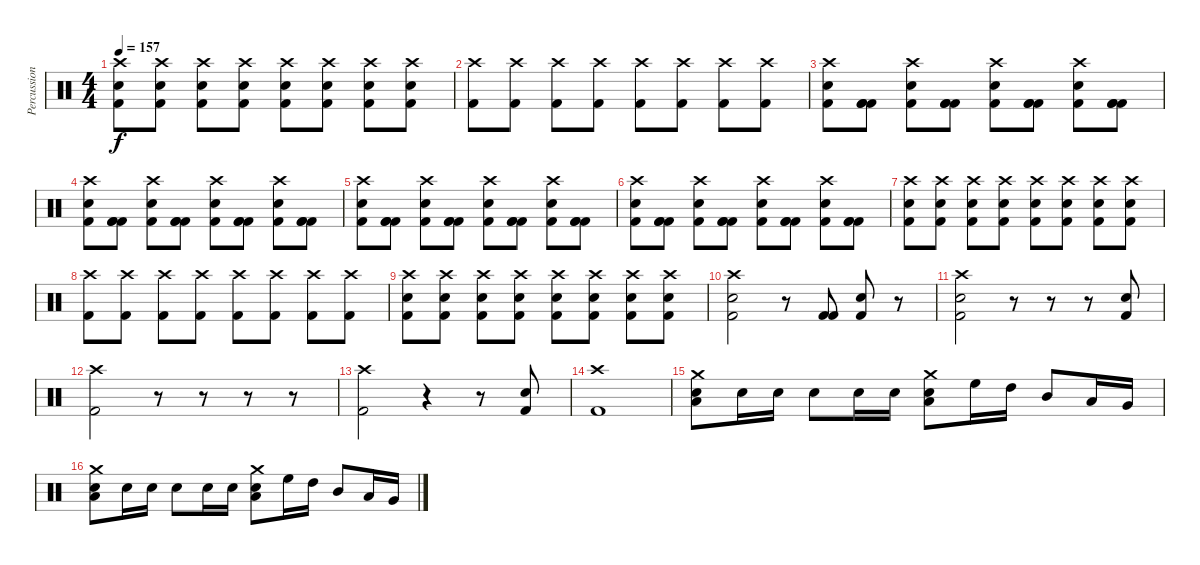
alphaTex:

\track ("Percussion" "Percussion") {instrument percussion}
\staff {score}
\articulation defaults
\ts (4 4)
\tempo 157
\clef neutral
\ks c
("Kick (hit) 2" "Electric Snare (hit)" "Crash high (hit)").8{dy f} ("Kick (hit) 2" "Electric Snare (hit)" "Crash high (hit)").8 ("Kick (hit) 2" "Electric Snare (hit)" "Crash high (hit)").8 ("Kick (hit) 2" "Electric Snare (hit)" "Crash high (hit)").8 ("Kick (hit) 2" "Electric Snare (hit)" "Crash high (hit)").8 ("Kick (hit) 2" "Electric Snare (hit)" "Crash high (hit)").8 ("Kick (hit) 2" "Electric Snare (hit)" "Crash high (hit)").8 ("Kick (hit) 2" "Electric Snare (hit)" "Crash high (hit)").8 |
("Kick (hit) 2" "Crash high (hit)").8 ("Kick (hit) 2" "Crash high (hit)").8 ("Kick (hit) 2" "Crash high (hit)").8 ("Kick (hit) 2" "Crash high (hit)").8 ("Kick (hit) 2" "Crash high (hit)").8 ("Kick (hit) 2" "Crash high (hit)").8 ("Kick (hit) 2" "Crash high (hit)").8 ("Kick (hit) 2" "Crash high (hit)").8 |
("Kick (hit) 2" "Electric Snare (hit)" "Crash high (hit)").8 ("Kick (hit) 2" "Kick (hit) 2" "Kick (hit) 2").8 ("Kick (hit) 2" "Electric Snare (hit)" "Crash high (hit)").8 ("Kick (hit) 2" "Kick (hit) 2" "Kick (hit) 2").8 ("Kick (hit) 2" "Electric Snare (hit)" "Crash high (hit)").8 ("Kick (hit) 2" "Kick (hit) 2" "Kick (hit) 2").8 ("Kick (hit) 2" "Electric Snare (hit)" "Crash high (hit)").8 ("Kick (hit) 2" "Kick (hit) 2" "Kick (hit) 2").8 |
("Kick (hit) 2" "Electric Snare (hit)" "Crash high (hit)").8 ("Kick (hit) 2" "Kick (hit) 2" "Kick (hit) 2").8 ("Kick (hit) 2" "Electric Snare (hit)" "Crash high (hit)").8 ("Kick (hit) 2" "Kick (hit) 2" "Kick (hit) 2").8 ("Kick (hit) 2" "Electric Snare (hit)" "Crash high (hit)").8 ("Kick (hit) 2" "Kick (hit) 2" "Kick (hit) 2").8 ("Kick (hit) 2" "Electric Snare (hit)" "Crash high (hit)").8 ("Kick (hit) 2" "Kick (hit) 2" "Kick (hit) 2").8 |
("Kick (hit) 2" "Electric Snare (hit)" "Crash high (hit)").8 ("Kick (hit) 2" "Kick (hit) 2" "Kick (hit) 2").8 ("Kick (hit) 2" "Electric Snare (hit)" "Crash high (hit)").8 ("Kick (hit) 2" "Kick (hit) 2" "Kick (hit) 2").8 ("Kick (hit) 2" "Electric Snare (hit)" "Crash high (hit)").8 ("Kick (hit) 2" "Kick (hit) 2" "Kick (hit) 2").8 ("Kick (hit) 2" "Electric Snare (hit)" "Crash high (hit)").8 ("Kick (hit) 2" "Kick (hit) 2" "Kick (hit) 2").8 |
("Kick (hit) 2" "Electric Snare (hit)" "Crash high (hit)").8 ("Kick (hit) 2" "Kick (hit) 2" "Kick (hit) 2").8 ("Kick (hit) 2" "Electric Snare (hit)" "Crash high (hit)").8 ("Kick (hit) 2" "Kick (hit) 2" "Kick (hit) 2").8 ("Kick (hit) 2" "Electric Snare (hit)" "Crash high (hit)").8 ("Kick (hit) 2" "Kick (hit) 2" "Kick (hit) 2").8 ("Kick (hit) 2" "Electric Snare (hit)" "Crash high (hit)").8 ("Kick (hit) 2" "Kick (hit) 2" "Kick (hit) 2").8 |
("Kick (hit) 2" "Electric Snare (hit)" "Crash high (hit)").8 ("Kick (hit) 2" "Electric Snare (hit)" "Crash high (hit)").8 ("Kick (hit) 2" "Electric Snare (hit)" "Crash high (hit)").8 ("Kick (hit) 2" "Electric Snare (hit)" "Crash high (hit)").8 ("Kick (hit) 2" "Electric Snare (hit)" "Crash high (hit)").8 ("Kick (hit) 2" "Electric Snare (hit)" "Crash high (hit)").8 ("Kick (hit) 2" "Electric Snare (hit)" "Crash high (hit)").8 ("Kick (hit) 2" "Electric Snare (hit)" "Crash high (hit)").8 |
("Kick (hit) 2" "Crash high (hit)").8 ("Kick (hit) 2" "Crash high (hit)").8 ("Kick (hit) 2" "Crash high (hit)").8 ("Kick (hit) 2" "Crash high (hit)").8 ("Kick (hit) 2" "Crash high (hit)").8 ("Kick (hit) 2" "Crash high (hit)").8 ("Kick (hit) 2" "Crash high (hit)").8 ("Kick (hit) 2" "Crash high (hit)").8 |
("Kick (hit) 2" "Electric Snare (hit)" "Crash high (hit)").8 ("Kick (hit) 2" "Electric Snare (hit)" "Crash high (hit)").8 ("Kick (hit) 2" "Electric Snare (hit)" "Crash high (hit)").8 ("Kick (hit) 2" "Electric Snare (hit)" "Crash high (hit)").8 ("Kick (hit) 2" "Electric Snare (hit)" "Crash high (hit)").8 ("Kick (hit) 2" "Electric Snare (hit)" "Crash high (hit)").8 ("Kick (hit) 2" "Electric Snare (hit)" "Crash high (hit)").8 ("Kick (hit) 2" "Electric Snare (hit)" "Crash high (hit)").8 |
("Kick (hit) 2" "Electric Snare (hit)" "Crash high (hit)").2 r.8 ("Kick (hit) 2" "Kick (hit) 2").8 ("Kick (hit) 2" "Electric Snare (hit)").8 r.8 |
("Kick (hit) 2" "Electric Snare (hit)" "Crash high (hit)").2 r.8 r.8 r.8 ("Kick (hit) 2" "Electric Snare (hit)").8 |
("Kick (hit) 2" "Crash high (hit)").2 r.8 r.8 r.8 r.8 |
("Kick (hit) 2" "Crash high (hit)").2 r.4 r.8 ("Kick (hit) 2" "Electric Snare (hit)").8 |
("Kick (hit) 2" "Crash high (hit)").1 |
("Low Floor Tom (hit)" "Snare (hit) 2" "Crash medium (hit)").8 "Electric Snare (hit)".16 "Electric Snare (hit)".16 "Electric Snare (hit)".8 "Snare (hit) 2".16 "Snare (hit) 2".16 ("Low Floor Tom (hit)" "Snare (hit) 2" "Crash medium (hit)").8 "High Floor Tom (hit)".16 "High Tom (hit)".16 "Mid Tom (hit)".8 "Low Tom (hit)".16 "Very Low Tom (hit)".16 |
("Low Floor Tom (hit)" "Snare (hit) 2" "Crash medium (hit)").8 "Electric Snare (hit)".16 "Electric Snare (hit)".16 "Electric Snare (hit)".8 "Snare (hit) 2".16 "Snare (hit) 2".16 ("Low Floor Tom (hit)" "Snare (hit) 2" "Crash medium (hit)").8 "High Floor Tom (hit)".16 "High Tom (hit)".16 "Mid Tom (hit)".8 "Low Tom (hit)".16 "Very Low Tom (hit)".16
